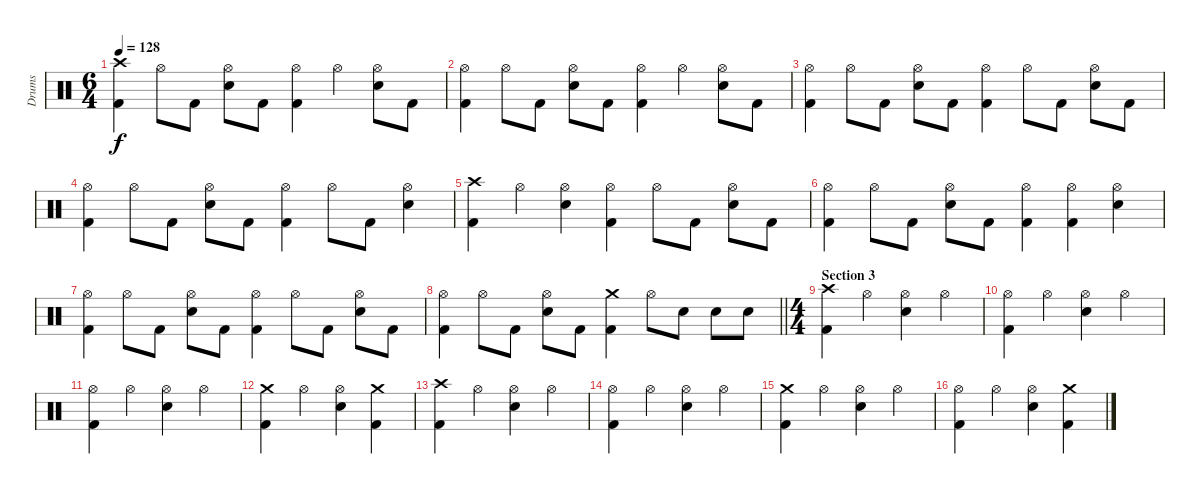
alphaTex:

\track ("Drums" "Drums") {instrument percussion}
\staff {score}
\articulation defaults
\ts (6 4)
\tempo 128
\clef neutral
\ks c
("Crash high (hit)" "Kick (hit) 2").4{dy f} "Hi-Hat (open)".8 "Kick (hit) 2".8 ("Hi-Hat (open)" "Electric Snare (hit)").8 "Kick (hit) 2".8 ("Hi-Hat (open)" "Kick (hit) 2").4 "Hi-Hat (open)".4 ("Hi-Hat (open)" "Electric Snare (hit)").8 "Kick (hit) 2".8 |
("Hi-Hat (open)" "Kick (hit) 2").4 "Hi-Hat (open)".8 "Kick (hit) 2".8 ("Hi-Hat (open)" "Electric Snare (hit)").8 "Kick (hit) 2".8 ("Hi-Hat (open)" "Kick (hit) 2").4 "Hi-Hat (open)".4 ("Hi-Hat (open)" "Electric Snare (hit)").8 "Kick (hit) 2".8 |
("Hi-Hat (open)" "Kick (hit) 2").4 "Hi-Hat (open)".8 "Kick (hit) 2".8 ("Hi-Hat (open)" "Electric Snare (hit)").8 "Kick (hit) 2".8 ("Hi-Hat (open)" "Kick (hit) 2").4 "Hi-Hat (open)".8 "Kick (hit) 2".8 ("Hi-Hat (open)" "Electric Snare (hit)").8 "Kick (hit) 2".8 |
("Hi-Hat (open)" "Kick (hit) 2").4 "Hi-Hat (open)".8 "Kick (hit) 2".8 ("Hi-Hat (open)" "Electric Snare (hit)").8 "Kick (hit) 2".8 ("Hi-Hat (open)" "Kick (hit) 2").4 "Hi-Hat (open)".8 "Kick (hit) 2".8 ("Hi-Hat (open)" "Electric Snare (hit)").4 |
("Crash high (hit)" "Kick (hit) 2").4 "Hi-Hat (open)".4 ("Hi-Hat (open)" "Electric Snare (hit)").4 ("Hi-Hat (open)" "Kick (hit) 2").4 "Hi-Hat (open)".8 "Kick (hit) 2".8 ("Hi-Hat (open)" "Electric Snare (hit)").8 "Kick (hit) 2".8 |
("Hi-Hat (open)" "Kick (hit) 2").4 "Hi-Hat (open)".8 "Kick (hit) 2".8 ("Hi-Hat (open)" "Electric Snare (hit)").8 "Kick (hit) 2".8 ("Hi-Hat (open)" "Kick (hit) 2").4 ("Hi-Hat (open)" "Kick (hit) 2").4 ("Hi-Hat (open)" "Electric Snare (hit)").4 |
("Hi-Hat (open)" "Kick (hit) 2").4 "Hi-Hat (open)".8 "Kick (hit) 2".8 ("Hi-Hat (open)" "Electric Snare (hit)").8 "Kick (hit) 2".8 ("Hi-Hat (open)" "Kick (hit) 2").4 "Hi-Hat (open)".8 "Kick (hit) 2".8 ("Hi-Hat (open)" "Electric Snare (hit)").8 "Kick (hit) 2".8 |
\barLineRight lightlight
("Hi-Hat (open)" "Kick (hit) 2").4 "Hi-Hat (open)".8 "Kick (hit) 2".8 ("Hi-Hat (open)" "Electric Snare (hit)").8 "Kick (hit) 2".8 ("Crash medium (hit)" "Kick (hit) 2").4 "Hi-Hat (open)".8 "Electric Snare (hit)".8 "Electric Snare (hit)".8 "Electric Snare (hit)".8 |
\ts (4 4)
\section ("" "Section 3")
("Crash high (hit)" "Kick (hit) 2").4 "Hi-Hat (open)".4 ("Hi-Hat (open)" "Electric Snare (hit)").4 "Hi-Hat (open)".4 |
("Hi-Hat (open)" "Kick (hit) 2").4 "Hi-Hat (open)".4 ("Hi-Hat (open)" "Electric Snare (hit)").4 "Hi-Hat (open)".4 |
("Hi-Hat (open)" "Kick (hit) 2").4 "Hi-Hat (open)".4 ("Hi-Hat (open)" "Electric Snare (hit)").4 "Hi-Hat (open)".4 |
("Crash medium (hit)" "Kick (hit) 2").4 "Hi-Hat (open)".4 ("Hi-Hat (open)" "Electric Snare (hit)").4 ("Crash medium (hit)" "Kick (hit) 2").4 |
("Crash high (hit)" "Kick (hit) 2").4 "Hi-Hat (open)".4 ("Hi-Hat (open)" "Electric Snare (hit)").4 "Hi-Hat (open)".4 |
("Hi-Hat (open)" "Kick (hit) 2").4 "Hi-Hat (open)".4 ("Hi-Hat (open)" "Electric Snare (hit)").4 "Hi-Hat (open)".4 |
("Crash medium (hit)" "Kick (hit) 2").4 "Hi-Hat (open)".4 ("Hi-Hat (open)" "Electric Snare (hit)").4 "Hi-Hat (open)".4 |
("Hi-Hat (open)" "Kick (hit) 2").4 "Hi-Hat (open)".4 ("Hi-Hat (open)" "Electric Snare (hit)").4 ("Crash medium (hit)" "Kick (hit) 2").4
